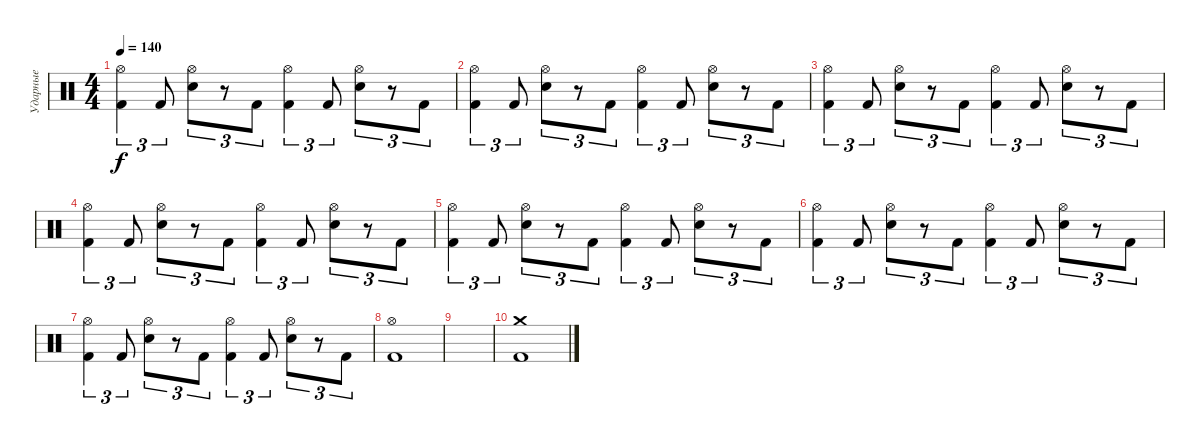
\track ("Ударные" "Ударные") {instrument percussion}
\staff {score}
\articulation defaults
\ts (4 4)
\tempo 140
\clef neutral
\ks c
("Hi-Hat (open)" "Kick (hit) 2").4{tu (3 2) dy f} "Kick (hit) 2".8{tu (3 2)} ("Hi-Hat (open)" "Electric Snare (hit)").8{tu (3 2)} r.8{tu (3 2)} "Kick (hit) 2".8{tu (3 2)} ("Hi-Hat (open)" "Kick (hit) 2").4{tu (3 2)} "Kick (hit) 2".8{tu (3 2)} ("Hi-Hat (open)" "Electric Snare (hit)").8{tu (3 2)} r.8{tu (3 2)} "Kick (hit) 2".8{tu (3 2)} |
("Hi-Hat (open)" "Kick (hit) 2").4{tu (3 2)} "Kick (hit) 2".8{tu (3 2)} ("Hi-Hat (open)" "Electric Snare (hit)").8{tu (3 2)} r.8{tu (3 2)} "Kick (hit) 2".8{tu (3 2)} ("Hi-Hat (open)" "Kick (hit) 2").4{tu (3 2)} "Kick (hit) 2".8{tu (3 2)} ("Hi-Hat (open)" "Electric Snare (hit)").8{tu (3 2)} r.8{tu (3 2)} "Kick (hit) 2".8{tu (3 2)} |
("Hi-Hat (open)" "Kick (hit) 2").4{tu (3 2)} "Kick (hit) 2".8{tu (3 2)} ("Hi-Hat (open)" "Electric Snare (hit)").8{tu (3 2)} r.8{tu (3 2)} "Kick (hit) 2".8{tu (3 2)} ("Hi-Hat (open)" "Kick (hit) 2").4{tu (3 2)} "Kick (hit) 2".8{tu (3 2)} ("Hi-Hat (open)" "Electric Snare (hit)").8{tu (3 2)} r.8{tu (3 2)} "Kick (hit) 2".8{tu (3 2)} |
("Hi-Hat (open)" "Kick (hit) 2").4{tu (3 2)} "Kick (hit) 2".8{tu (3 2)} ("Hi-Hat (open)" "Electric Snare (hit)").8{tu (3 2)} r.8{tu (3 2)} "Kick (hit) 2".8{tu (3 2)} ("Hi-Hat (open)" "Kick (hit) 2").4{tu (3 2)} "Kick (hit) 2".8{tu (3 2)} ("Hi-Hat (open)" "Electric Snare (hit)").8{tu (3 2)} r.8{tu (3 2)} "Kick (hit) 2".8{tu (3 2)} |
("Hi-Hat (open)" "Kick (hit) 2").4{tu (3 2)} "Kick (hit) 2".8{tu (3 2)} ("Hi-Hat (open)" "Electric Snare (hit)").8{tu (3 2)} r.8{tu (3 2)} "Kick (hit) 2".8{tu (3 2)} ("Hi-Hat (open)" "Kick (hit) 2").4{tu (3 2)} "Kick (hit) 2".8{tu (3 2)} ("Hi-Hat (open)" "Electric Snare (hit)").8{tu (3 2)} r.8{tu (3 2)} "Kick (hit) 2".8{tu (3 2)} |
("Hi-Hat (open)" "Kick (hit) 2").4{tu (3 2)} "Kick (hit) 2".8{tu (3 2)} ("Hi-Hat (open)" "Electric Snare (hit)").8{tu (3 2)} r.8{tu (3 2)} "Kick (hit) 2".8{tu (3 2)} ("Hi-Hat (open)" "Kick (hit) 2").4{tu (3 2)} "Kick (hit) 2".8{tu (3 2)} ("Hi-Hat (open)" "Electric Snare (hit)").8{tu (3 2)} r.8{tu (3 2)} "Kick (hit) 2".8{tu (3 2)} |
("Hi-Hat (open)" "Kick (hit) 2").4{tu (3 2)} "Kick (hit) 2".8{tu (3 2)} ("Hi-Hat (open)" "Electric Snare (hit)").8{tu (3 2)} r.8{tu (3 2)} "Kick (hit) 2".8{tu (3 2)} ("Hi-Hat (open)" "Kick (hit) 2").4{tu (3 2)} "Kick (hit) 2".8{tu (3 2)} ("Hi-Hat (open)" "Electric Snare (hit)").8{tu (3 2)} r.8{tu (3 2)} "Kick (hit) 2".8{tu (3 2)} |
("Hi-Hat (open)" "Kick (hit) 2").1 |
|
("Crash medium (hit)" "Kick (hit) 2").1
